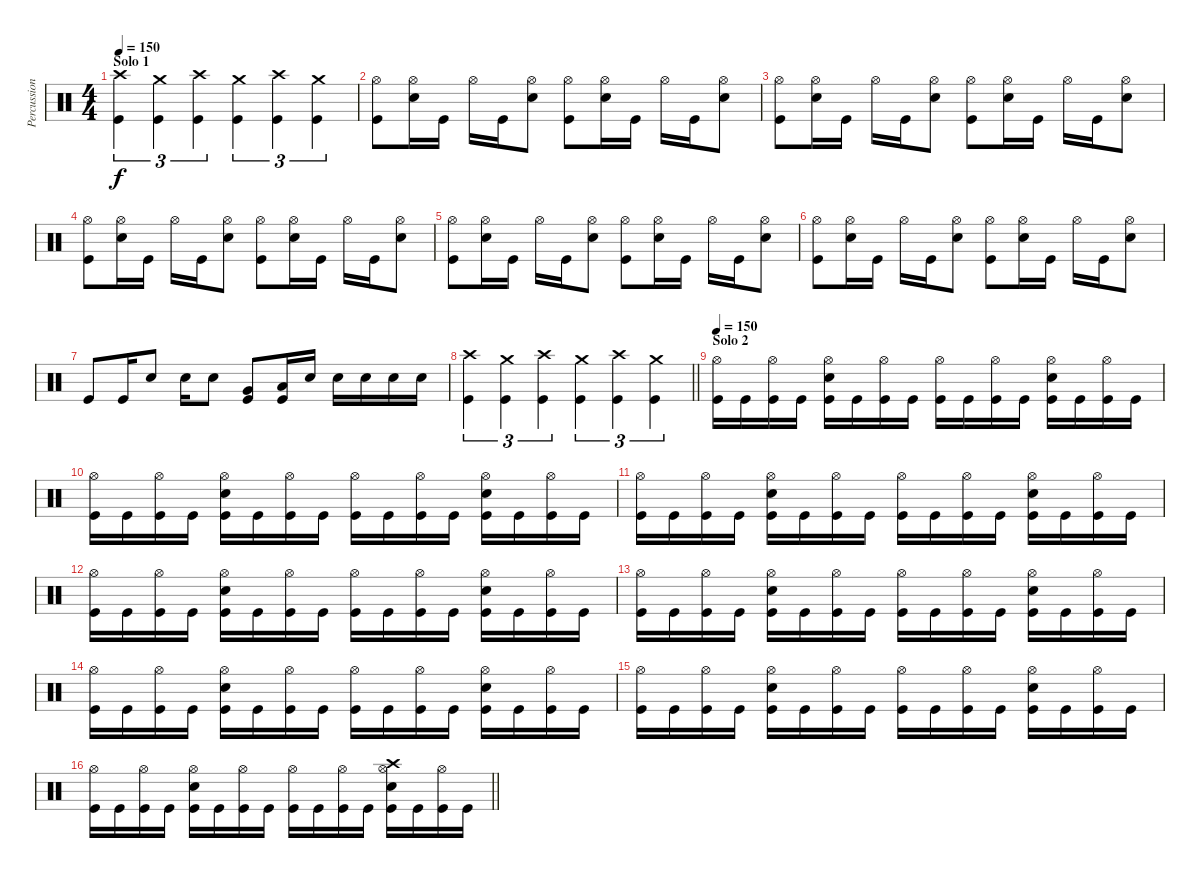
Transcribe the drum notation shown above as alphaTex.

\track ("Percussion" "Percussion") {instrument percussion}
\staff {score}
\articulation defaults
\ts (4 4)
\section ("" "Solo 1")
\tempo 150
\clef neutral
\ks c
("Crash high (hit)" "Kick (hit)").4{tu (3 2) dy f} ("Crash medium (hit)" "Kick (hit)").4{tu (3 2)} ("Crash high (hit)" "Kick (hit)").4{tu (3 2)} ("Crash medium (hit)" "Kick (hit)").4{tu (3 2)} ("Crash high (hit)" "Kick (hit)").4{tu (3 2)} ("Crash medium (hit)" "Kick (hit)").4{tu (3 2)} |
("Hi-Hat (open)" "Kick (hit)").8 ("Hi-Hat (open)" "Snare (hit) 2").16 "Kick (hit)".16 "Hi-Hat (open)".16 "Kick (hit)".16 ("Hi-Hat (open)" "Snare (hit) 2").8 ("Hi-Hat (open)" "Kick (hit)").8 ("Hi-Hat (open)" "Snare (hit) 2").16 "Kick (hit)".16 "Hi-Hat (open)".16 "Kick (hit)".16 ("Hi-Hat (open)" "Snare (hit) 2").8 |
("Hi-Hat (open)" "Kick (hit)").8 ("Hi-Hat (open)" "Snare (hit) 2").16 "Kick (hit)".16 "Hi-Hat (open)".16 "Kick (hit)".16 ("Hi-Hat (open)" "Snare (hit) 2").8 ("Hi-Hat (open)" "Kick (hit)").8 ("Hi-Hat (open)" "Snare (hit) 2").16 "Kick (hit)".16 "Hi-Hat (open)".16 "Kick (hit)".16 ("Hi-Hat (open)" "Snare (hit) 2").8 |
("Hi-Hat (open)" "Kick (hit)").8 ("Hi-Hat (open)" "Snare (hit) 2").16 "Kick (hit)".16 "Hi-Hat (open)".16 "Kick (hit)".16 ("Hi-Hat (open)" "Snare (hit) 2").8 ("Hi-Hat (open)" "Kick (hit)").8 ("Hi-Hat (open)" "Snare (hit) 2").16 "Kick (hit)".16 "Hi-Hat (open)".16 "Kick (hit)".16 ("Hi-Hat (open)" "Snare (hit) 2").8 |
("Hi-Hat (open)" "Kick (hit)").8 ("Hi-Hat (open)" "Snare (hit) 2").16 "Kick (hit)".16 "Hi-Hat (open)".16 "Kick (hit)".16 ("Hi-Hat (open)" "Snare (hit) 2").8 ("Hi-Hat (open)" "Kick (hit)").8 ("Hi-Hat (open)" "Snare (hit) 2").16 "Kick (hit)".16 "Hi-Hat (open)".16 "Kick (hit)".16 ("Hi-Hat (open)" "Snare (hit) 2").8 |
("Hi-Hat (open)" "Kick (hit)").8 ("Hi-Hat (open)" "Snare (hit) 2").16 "Kick (hit)".16 "Hi-Hat (open)".16 "Kick (hit)".16 ("Hi-Hat (open)" "Snare (hit) 2").8 ("Hi-Hat (open)" "Kick (hit)").8 ("Hi-Hat (open)" "Snare (hit) 2").16 "Kick (hit)".16 "Hi-Hat (open)".16 "Kick (hit)".16 ("Hi-Hat (open)" "Snare (hit) 2").8 |
"Kick (hit)".8 "Kick (hit)".16 "Snare (hit) 2".8 "Snare (hit) 2".16 "Snare (hit) 2".8 ("Very Low Tom (hit)" "Kick (hit)").8 ("Low Tom (hit)" "Kick (hit)").16 "Snare (hit) 2".16 "Snare (hit) 2".16 "Snare (hit) 2".16 "Snare (hit) 2".16 "Snare (hit) 2".16 |
\barLineRight lightlight
("Crash high (hit)" "Kick (hit)").4{tu (3 2)} ("Crash medium (hit)" "Kick (hit)").4{tu (3 2)} ("Crash high (hit)" "Kick (hit)").4{tu (3 2)} ("Crash medium (hit)" "Kick (hit)").4{tu (3 2)} ("Crash high (hit)" "Kick (hit)").4{tu (3 2)} ("Crash medium (hit)" "Kick (hit)").4{tu (3 2)} |
\section ("" "Solo 2")
\tempo 150
("Hi-Hat (open)" "Kick (hit)").16 "Kick (hit)".16 ("Hi-Hat (open)" "Kick (hit)").16 "Kick (hit)".16 ("Hi-Hat (open)" "Snare (hit) 2" "Kick (hit)").16 "Kick (hit)".16 ("Hi-Hat (open)" "Kick (hit)").16 "Kick (hit)".16 ("Hi-Hat (open)" "Kick (hit)").16 "Kick (hit)".16 ("Hi-Hat (open)" "Kick (hit)").16 "Kick (hit)".16 ("Hi-Hat (open)" "Snare (hit) 2" "Kick (hit)").16 "Kick (hit)".16 ("Hi-Hat (open)" "Kick (hit)").16 "Kick (hit)".16 |
("Hi-Hat (open)" "Kick (hit)").16 "Kick (hit)".16 ("Hi-Hat (open)" "Kick (hit)").16 "Kick (hit)".16 ("Hi-Hat (open)" "Snare (hit) 2" "Kick (hit)").16 "Kick (hit)".16 ("Hi-Hat (open)" "Kick (hit)").16 "Kick (hit)".16 ("Hi-Hat (open)" "Kick (hit)").16 "Kick (hit)".16 ("Hi-Hat (open)" "Kick (hit)").16 "Kick (hit)".16 ("Hi-Hat (open)" "Snare (hit) 2" "Kick (hit)").16 "Kick (hit)".16 ("Hi-Hat (open)" "Kick (hit)").16 "Kick (hit)".16 |
("Hi-Hat (open)" "Kick (hit)").16 "Kick (hit)".16 ("Hi-Hat (open)" "Kick (hit)").16 "Kick (hit)".16 ("Hi-Hat (open)" "Snare (hit) 2" "Kick (hit)").16 "Kick (hit)".16 ("Hi-Hat (open)" "Kick (hit)").16 "Kick (hit)".16 ("Hi-Hat (open)" "Kick (hit)").16 "Kick (hit)".16 ("Hi-Hat (open)" "Kick (hit)").16 "Kick (hit)".16 ("Hi-Hat (open)" "Snare (hit) 2" "Kick (hit)").16 "Kick (hit)".16 ("Hi-Hat (open)" "Kick (hit)").16 "Kick (hit)".16 |
("Hi-Hat (open)" "Kick (hit)").16 "Kick (hit)".16 ("Hi-Hat (open)" "Kick (hit)").16 "Kick (hit)".16 ("Hi-Hat (open)" "Snare (hit) 2" "Kick (hit)").16 "Kick (hit)".16 ("Hi-Hat (open)" "Kick (hit)").16 "Kick (hit)".16 ("Hi-Hat (open)" "Kick (hit)").16 "Kick (hit)".16 ("Hi-Hat (open)" "Kick (hit)").16 "Kick (hit)".16 ("Hi-Hat (open)" "Snare (hit) 2" "Kick (hit)").16 "Kick (hit)".16 ("Hi-Hat (open)" "Kick (hit)").16 "Kick (hit)".16 |
("Hi-Hat (open)" "Kick (hit)").16 "Kick (hit)".16 ("Hi-Hat (open)" "Kick (hit)").16 "Kick (hit)".16 ("Hi-Hat (open)" "Snare (hit) 2" "Kick (hit)").16 "Kick (hit)".16 ("Hi-Hat (open)" "Kick (hit)").16 "Kick (hit)".16 ("Hi-Hat (open)" "Kick (hit)").16 "Kick (hit)".16 ("Hi-Hat (open)" "Kick (hit)").16 "Kick (hit)".16 ("Hi-Hat (open)" "Snare (hit) 2" "Kick (hit)").16 "Kick (hit)".16 ("Hi-Hat (open)" "Kick (hit)").16 "Kick (hit)".16 |
("Hi-Hat (open)" "Kick (hit)").16 "Kick (hit)".16 ("Hi-Hat (open)" "Kick (hit)").16 "Kick (hit)".16 ("Hi-Hat (open)" "Snare (hit) 2" "Kick (hit)").16 "Kick (hit)".16 ("Hi-Hat (open)" "Kick (hit)").16 "Kick (hit)".16 ("Hi-Hat (open)" "Kick (hit)").16 "Kick (hit)".16 ("Hi-Hat (open)" "Kick (hit)").16 "Kick (hit)".16 ("Hi-Hat (open)" "Snare (hit) 2" "Kick (hit)").16 "Kick (hit)".16 ("Hi-Hat (open)" "Kick (hit)").16 "Kick (hit)".16 |
("Hi-Hat (open)" "Kick (hit)").16 "Kick (hit)".16 ("Hi-Hat (open)" "Kick (hit)").16 "Kick (hit)".16 ("Hi-Hat (open)" "Snare (hit) 2" "Kick (hit)").16 "Kick (hit)".16 ("Hi-Hat (open)" "Kick (hit)").16 "Kick (hit)".16 ("Hi-Hat (open)" "Kick (hit)").16 "Kick (hit)".16 ("Hi-Hat (open)" "Kick (hit)").16 "Kick (hit)".16 ("Hi-Hat (open)" "Snare (hit) 2" "Kick (hit)").16 "Kick (hit)".16 ("Hi-Hat (open)" "Kick (hit)").16 "Kick (hit)".16 |
\barLineRight lightlight
("Hi-Hat (open)" "Kick (hit)").16 "Kick (hit)".16 ("Hi-Hat (open)" "Kick (hit)").16 "Kick (hit)".16 ("Hi-Hat (open)" "Snare (hit) 2" "Kick (hit)").16 "Kick (hit)".16 ("Hi-Hat (open)" "Kick (hit)").16 "Kick (hit)".16 ("Hi-Hat (open)" "Kick (hit)").16 "Kick (hit)".16 ("Hi-Hat (open)" "Kick (hit)").16 "Kick (hit)".16 ("Hi-Hat (open)" "Snare (hit) 2" "Crash high (hit)" "Kick (hit)").16 "Kick (hit)".16 ("Hi-Hat (open)" "Kick (hit)").16 "Kick (hit)".16
